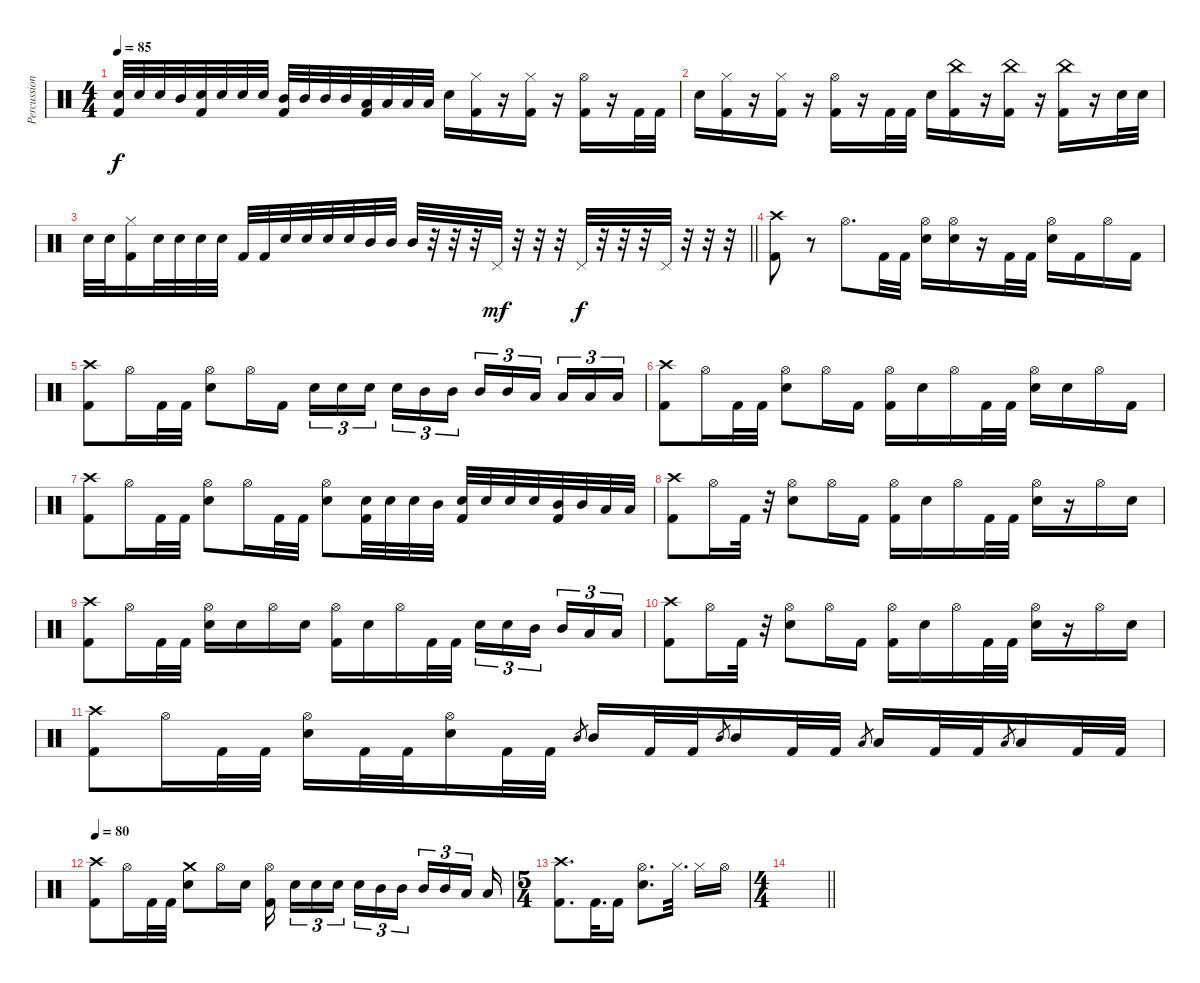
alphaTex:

\track ("Percussion" "Percussion") {instrument percussion}
\staff {score}
\articulation defaults
\ts (4 4)
\tempo 85
\clef neutral
\ks c
("Electric Snare (hit)" "Kick (hit) 2").32{dy f} "Electric Snare (hit)".32 "Electric Snare (hit)".32 "Mid Tom (hit)".32 ("Electric Snare (hit)" "Kick (hit) 2").32 "Electric Snare (hit)".32 "Electric Snare (hit)".32 "Electric Snare (hit)".32 ("Mid Tom (hit)" "Kick (hit) 2").32 "Mid Tom (hit)".32 "Mid Tom (hit)".32 "Mid Tom (hit)".32 ("Low Tom (hit)" "Kick (hit) 2").32 "Low Tom (hit)".32 "Low Tom (hit)".32 "Low Tom (hit)".32 "Electric Snare (hit)".16 ("Hi-Hat (closed)" "Kick (hit) 2").16 r.16 ("Hi-Hat (closed)" "Kick (hit) 2").16 r.16 ("Hi-Hat (open)" "Kick (hit) 2").16 r.16 "Kick (hit) 2".32 "Kick (hit) 2".32 |
"Electric Snare (hit)".16 ("Hi-Hat (closed)" "Kick (hit) 2").16 r.16 ("Hi-Hat (closed)" "Kick (hit) 2").16 r.16 ("Hi-Hat (open)" "Kick (hit) 2").16 r.16 "Kick (hit) 2".32 "Kick (hit) 2".32 "Electric Snare (hit)".16 ("China (hit)" "Kick (hit) 2").16 r.16 ("China (hit)" "Kick (hit) 2").16 r.16 ("China (hit)" "Kick (hit) 2").16 r.16 "Electric Snare (hit)".32 "Electric Snare (hit)".32 |
\barLineRight lightlight "Electric Snare (hit)".32 "Electric Snare (hit)".32
("Hi-Hat (closed)" "Kick (hit) 2").16 "Electric Snare (hit)".32 "Electric Snare (hit)".32 "Electric Snare (hit)".32 "Electric Snare (hit)".32 "Kick (hit) 2".32 "Kick (hit) 2".32 "Electric Snare (hit)".32 "Electric Snare (hit)".32 "Electric Snare (hit)".32 "Electric Snare (hit)".32 "Mid Tom (hit)".32 "Mid Tom (hit)".32 "Mid Tom (hit)".32 r.32 r.32 r.32 "Pedal Hi-Hat (hit)".32{dy mf} r.32 r.32 r.32 "Pedal Hi-Hat (hit)".32{dy f} r.32 r.32 r.32 "Pedal Hi-Hat (hit)".32 r.32 r.32 r.32 |
("Crash high (hit)" "Kick (hit) 2").8 r.8 "Hi-Hat (open)".8{d} "Kick (hit) 2".32 "Kick (hit) 2".32 ("Hi-Hat (open)" "Electric Snare (hit)").16 ("Hi-Hat (open)" "Electric Snare (hit)").16 r.16 "Kick (hit) 2".32 "Kick (hit) 2".32 ("Hi-Hat (open)" "Electric Snare (hit)").16 "Kick (hit) 2".16 "Hi-Hat (open)".16 "Kick (hit) 2".16 |
("Crash high (hit)" "Kick (hit) 2").8 "Hi-Hat (open)".16 "Kick (hit) 2".32 "Kick (hit) 2".32 ("Hi-Hat (open)" "Electric Snare (hit)").8 "Hi-Hat (open)".16 "Kick (hit) 2".16 "Electric Snare (hit)".16{tu (3 2)} "Electric Snare (hit)".16{tu (3 2)} "Electric Snare (hit)".16{tu (3 2) beam splitsecondary} "Electric Snare (hit)".16{tu (3 2)} "Mid Tom (hit)".16{tu (3 2)} "Mid Tom (hit)".16{tu (3 2)} "Mid Tom (hit)".16{tu (3 2)} "Mid Tom (hit)".16{tu (3 2)} "Low Tom (hit)".16{tu (3 2) beam splitsecondary} "Low Tom (hit)".16{tu (3 2)} "Low Tom (hit)".16{tu (3 2)} "Low Tom (hit)".16{tu (3 2)} |
("Crash high (hit)" "Kick (hit) 2").8 "Hi-Hat (open)".16 "Kick (hit) 2".32 "Kick (hit) 2".32 ("Hi-Hat (open)" "Electric Snare (hit)").8 "Hi-Hat (open)".16 "Kick (hit) 2".16 ("Hi-Hat (open)" "Kick (hit) 2").16 "Electric Snare (hit)".16 "Hi-Hat (open)".16 "Kick (hit) 2".32 "Kick (hit) 2".32 ("Hi-Hat (open)" "Electric Snare (hit)").16 "Electric Snare (hit)".16 "Hi-Hat (open)".16 "Kick (hit) 2".16 |
("Crash high (hit)" "Kick (hit) 2").8 "Hi-Hat (open)".16 "Kick (hit) 2".32 "Kick (hit) 2".32 ("Hi-Hat (open)" "Electric Snare (hit)").8 "Hi-Hat (open)".16 "Kick (hit) 2".32 "Kick (hit) 2".32 ("Hi-Hat (open)" "Electric Snare (hit)").8 ("Electric Snare (hit)" "Kick (hit) 2").32 "Electric Snare (hit)".32 "Electric Snare (hit)".32 "Mid Tom (hit)".32 ("Electric Snare (hit)" "Kick (hit) 2").32 "Electric Snare (hit)".32 "Electric Snare (hit)".32 "Electric Snare (hit)".32 ("Mid Tom (hit)" "Kick (hit) 2").32 "Mid Tom (hit)".32 "Low Tom (hit)".32 "Low Tom (hit)".32 |
("Crash high (hit)" "Kick (hit) 2").8 "Hi-Hat (open)".16 "Kick (hit) 2".32 r.32 ("Hi-Hat (open)" "Electric Snare (hit)").8 "Hi-Hat (open)".16 "Kick (hit) 2".16 ("Hi-Hat (open)" "Kick (hit) 2").16 "Electric Snare (hit)".16 "Hi-Hat (open)".16 "Kick (hit) 2".32 "Kick (hit) 2".32 ("Hi-Hat (open)" "Electric Snare (hit)").16 r.16 "Hi-Hat (open)".16 "Electric Snare (hit)".16 |
("Crash high (hit)" "Kick (hit) 2").8 "Hi-Hat (open)".16 "Kick (hit) 2".32 "Kick (hit) 2".32 ("Hi-Hat (open)" "Electric Snare (hit)").16 "Electric Snare (hit)".16 "Hi-Hat (open)".16 "Electric Snare (hit)".16 ("Hi-Hat (open)" "Kick (hit) 2").16 "Electric Snare (hit)".16 "Hi-Hat (open)".16 "Kick (hit) 2".32 "Kick (hit) 2".32 "Electric Snare (hit)".16{tu (3 2)} "Electric Snare (hit)".16{tu (3 2)} "Mid Tom (hit)".16{tu (3 2) beam splitsecondary} "Mid Tom (hit)".16{tu (3 2)} "Low Tom (hit)".16{tu (3 2)} "Low Tom (hit)".16{tu (3 2)} |
("Crash high (hit)" "Kick (hit) 2").8 "Hi-Hat (open)".16 "Kick (hit) 2".32 r.32 ("Hi-Hat (open)" "Electric Snare (hit)").8 "Hi-Hat (open)".16 "Kick (hit) 2".16 ("Hi-Hat (open)" "Kick (hit) 2").16 "Electric Snare (hit)".16 "Hi-Hat (open)".16 "Kick (hit) 2".32 "Kick (hit) 2".32 ("Hi-Hat (open)" "Electric Snare (hit)").16 r.16 "Hi-Hat (open)".16 "Electric Snare (hit)".16 |
("Crash high (hit)" "Kick (hit) 2").8 "Hi-Hat (open)".16 "Kick (hit) 2".32 "Kick (hit) 2".32 ("Hi-Hat (open)" "Electric Snare (hit)").16 "Kick (hit) 2".32 "Kick (hit) 2".32 ("Hi-Hat (open)" "Electric Snare (hit)").16 "Kick (hit) 2".32 "Kick (hit) 2".32 "Mid Tom (hit)".8{gr} "Mid Tom (hit)".16 "Kick (hit) 2".32 "Kick (hit) 2".32 "Mid Tom (hit)".8{gr} "Mid Tom (hit)".16 "Kick (hit) 2".32 "Kick (hit) 2".32 "Low Tom (hit)".8{gr} "Low Tom (hit)".16 "Kick (hit) 2".32 "Kick (hit) 2".32 "Low Tom (hit)".8{gr} "Low Tom (hit)".16 "Kick (hit) 2".32 "Kick (hit) 2".32 |
\tempo 80
("Crash high (hit)" "Kick (hit) 2").8 "Hi-Hat (open)".16 "Kick (hit) 2".32 "Kick (hit) 2".32 ("Crash medium (hit)" "Electric Snare (hit)").8 "Hi-Hat (open)".16 "Electric Snare (hit)".16 ("Hi-Hat (open)" "Kick (hit) 2").16{beam splitsecondary} "Electric Snare (hit)".16{tu (3 2)} "Electric Snare (hit)".16{tu (3 2)} "Electric Snare (hit)".16{tu (3 2) beam splitsecondary} "Electric Snare (hit)".16{tu (3 2)} "Mid Tom (hit)".16{tu (3 2)} "Mid Tom (hit)".16{tu (3 2) beam splitsecondary} "Mid Tom (hit)".16{tu (3 2)} "Mid Tom (hit)".16{tu (3 2)} "Low Tom (hit)".16{tu (3 2) beam splitsecondary} "Low Tom (hit)".16 |
\ts (5 4)
("Crash high (hit)" "Kick (hit) 2").8{d} "Kick (hit) 2".32{d} "Kick (hit) 2".16 ("Hi-Hat (open)" "Electric Snare (hit)").8{d} "Hi-Hat (closed)".32{d} "Hi-Hat (closed)".16 "Hi-Hat (open)".16 |
\ts (4 4)
\barLineRight lightlight
